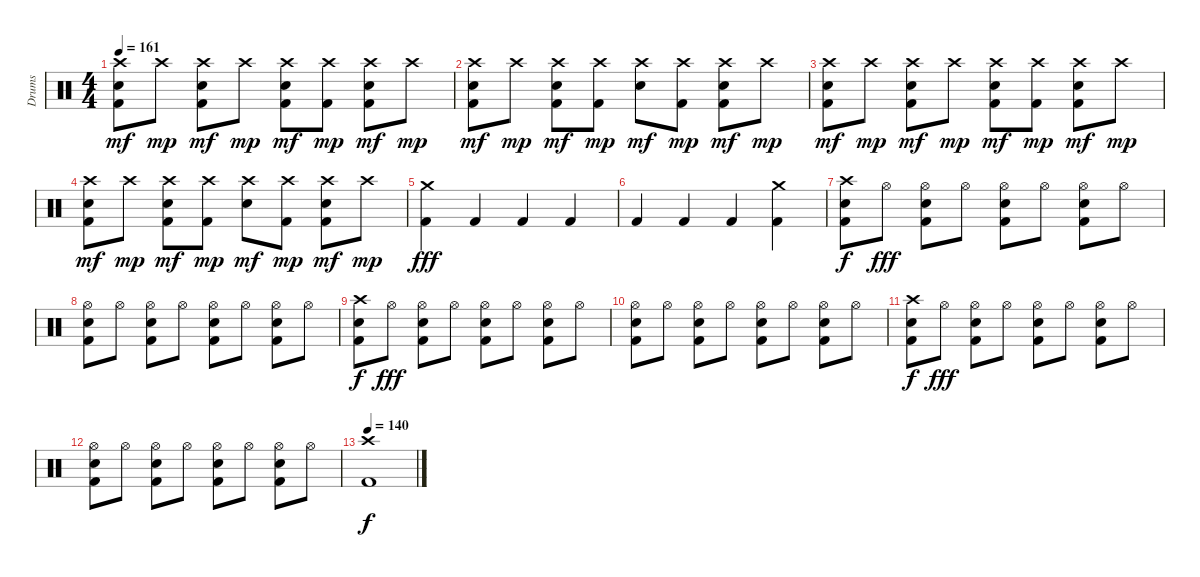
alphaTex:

\track ("Drums" "Drums") {instrument percussion}
\staff {score}
\articulation defaults
\ts (4 4)
\tempo 161
\clef neutral
\ks c
("Crash high (hit)" "Electric Snare (hit)" "Kick (hit) 2").8{dy mf} "Crash high (hit)".8{dy mp} ("Crash high (hit)" "Electric Snare (hit)" "Kick (hit) 2").8{dy mf} "Crash high (hit)".8{dy mp} ("Crash high (hit)" "Electric Snare (hit)" "Kick (hit) 2").8{dy mf} ("Crash high (hit)" "Kick (hit) 2").8{dy mp} ("Crash high (hit)" "Electric Snare (hit)" "Kick (hit) 2").8{dy mf} "Crash high (hit)".8{dy mp} |
("Crash high (hit)" "Electric Snare (hit)" "Kick (hit) 2").8{dy mf} "Crash high (hit)".8{dy mp} ("Crash high (hit)" "Electric Snare (hit)" "Kick (hit) 2").8{dy mf} ("Crash high (hit)" "Kick (hit) 2").8{dy mp} ("Crash high (hit)" "Electric Snare (hit)").8{dy mf} ("Crash high (hit)" "Kick (hit) 2").8{dy mp} ("Crash high (hit)" "Electric Snare (hit)" "Kick (hit) 2").8{dy mf} "Crash high (hit)".8{dy mp} |
("Crash high (hit)" "Electric Snare (hit)" "Kick (hit) 2").8{dy mf} "Crash high (hit)".8{dy mp} ("Crash high (hit)" "Electric Snare (hit)" "Kick (hit) 2").8{dy mf} "Crash high (hit)".8{dy mp} ("Crash high (hit)" "Electric Snare (hit)" "Kick (hit) 2").8{dy mf} ("Crash high (hit)" "Kick (hit) 2").8{dy mp} ("Crash high (hit)" "Electric Snare (hit)" "Kick (hit) 2").8{dy mf} "Crash high (hit)".8{dy mp} |
("Crash high (hit)" "Electric Snare (hit)" "Kick (hit) 2").8{dy mf} "Crash high (hit)".8{dy mp} ("Crash high (hit)" "Electric Snare (hit)" "Kick (hit) 2").8{dy mf} ("Crash high (hit)" "Kick (hit) 2").8{dy mp} ("Crash high (hit)" "Electric Snare (hit)").8{dy mf} ("Crash high (hit)" "Kick (hit) 2").8{dy mp} ("Crash high (hit)" "Electric Snare (hit)" "Kick (hit) 2").8{dy mf} "Crash high (hit)".8{dy mp} |
("Crash medium (hit)" "Kick (hit) 2").4{dy fff} "Kick (hit) 2".4 "Kick (hit) 2".4 "Kick (hit) 2".4 |
"Kick (hit) 2".4 "Kick (hit) 2".4 "Kick (hit) 2".4 ("Crash medium (hit)" "Kick (hit) 2").4 |
("Crash high (hit)" "Electric Snare (hit)" "Kick (hit) 2").8{dy f} "Hi-Hat (open)".8{dy fff} ("Hi-Hat (open)" "Electric Snare (hit)" "Kick (hit) 2").8 "Hi-Hat (open)".8 ("Hi-Hat (open)" "Electric Snare (hit)" "Kick (hit) 2").8 "Hi-Hat (open)".8 ("Hi-Hat (open)" "Electric Snare (hit)" "Kick (hit) 2").8 "Hi-Hat (open)".8 |
("Hi-Hat (open)" "Electric Snare (hit)" "Kick (hit) 2").8 "Hi-Hat (open)".8 ("Hi-Hat (open)" "Electric Snare (hit)" "Kick (hit) 2").8 "Hi-Hat (open)".8 ("Hi-Hat (open)" "Electric Snare (hit)" "Kick (hit) 2").8 "Hi-Hat (open)".8 ("Hi-Hat (open)" "Electric Snare (hit)" "Kick (hit) 2").8 "Hi-Hat (open)".8 |
("Crash high (hit)" "Electric Snare (hit)" "Kick (hit) 2").8{dy f} "Hi-Hat (open)".8{dy fff} ("Hi-Hat (open)" "Electric Snare (hit)" "Kick (hit) 2").8 "Hi-Hat (open)".8 ("Hi-Hat (open)" "Electric Snare (hit)" "Kick (hit) 2").8 "Hi-Hat (open)".8 ("Hi-Hat (open)" "Electric Snare (hit)" "Kick (hit) 2").8 "Hi-Hat (open)".8 |
("Hi-Hat (open)" "Electric Snare (hit)" "Kick (hit) 2").8 "Hi-Hat (open)".8 ("Hi-Hat (open)" "Electric Snare (hit)" "Kick (hit) 2").8 "Hi-Hat (open)".8 ("Hi-Hat (open)" "Electric Snare (hit)" "Kick (hit) 2").8 "Hi-Hat (open)".8 ("Hi-Hat (open)" "Electric Snare (hit)" "Kick (hit) 2").8 "Hi-Hat (open)".8 |
("Crash high (hit)" "Electric Snare (hit)" "Kick (hit) 2").8{dy f} "Hi-Hat (open)".8{dy fff} ("Hi-Hat (open)" "Electric Snare (hit)" "Kick (hit) 2").8 "Hi-Hat (open)".8 ("Hi-Hat (open)" "Electric Snare (hit)" "Kick (hit) 2").8 "Hi-Hat (open)".8 ("Hi-Hat (open)" "Electric Snare (hit)" "Kick (hit) 2").8 "Hi-Hat (open)".8 |
("Hi-Hat (open)" "Electric Snare (hit)" "Kick (hit) 2").8 "Hi-Hat (open)".8 ("Hi-Hat (open)" "Electric Snare (hit)" "Kick (hit) 2").8 "Hi-Hat (open)".8 ("Hi-Hat (open)" "Electric Snare (hit)" "Kick (hit) 2").8 "Hi-Hat (open)".8 ("Hi-Hat (open)" "Electric Snare (hit)" "Kick (hit) 2").8 "Hi-Hat (open)".8 |
\tempo 140
("Crash high (hit)" "Kick (hit) 2").1{dy f}
